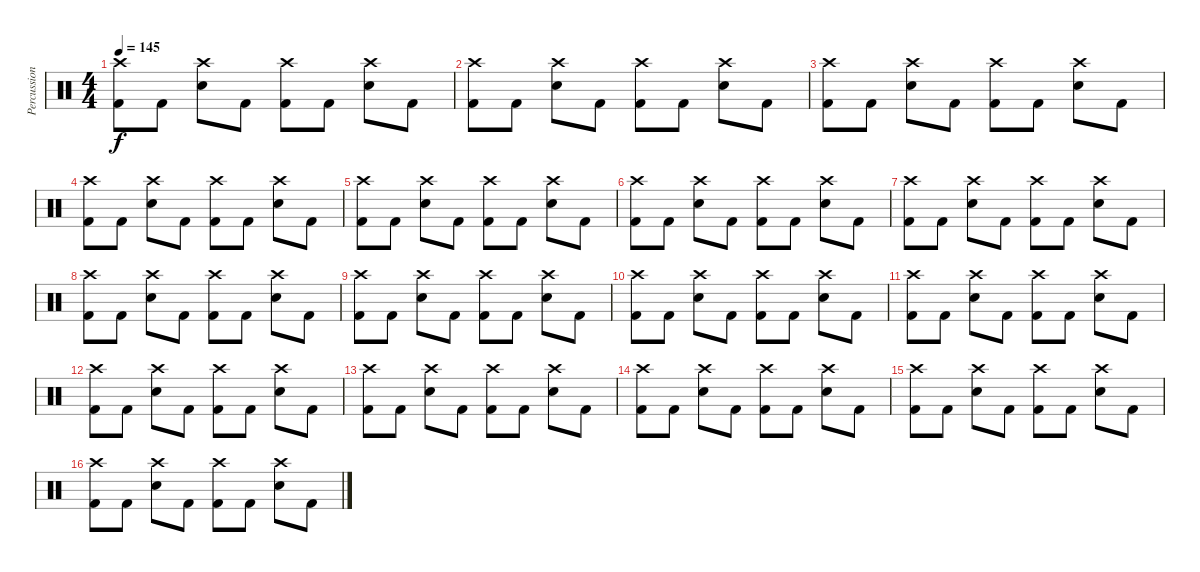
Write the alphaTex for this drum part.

\track ("Percussion" "Percussion") {instrument percussion}
\staff {score}
\articulation defaults
\ts (4 4)
\tempo 145
\clef neutral
\ks c
("Crash high (hit)" "Kick (hit) 2").8{dy f} "Kick (hit) 2".8 ("Crash high (hit)" "Electric Snare (hit)").8 "Kick (hit) 2".8 ("Crash high (hit)" "Kick (hit) 2").8 "Kick (hit) 2".8 ("Crash high (hit)" "Electric Snare (hit)").8 "Kick (hit) 2".8 |
("Crash high (hit)" "Kick (hit) 2").8 "Kick (hit) 2".8 ("Crash high (hit)" "Electric Snare (hit)").8 "Kick (hit) 2".8 ("Crash high (hit)" "Kick (hit) 2").8 "Kick (hit) 2".8 ("Crash high (hit)" "Electric Snare (hit)").8 "Kick (hit) 2".8 |
("Crash high (hit)" "Kick (hit) 2").8 "Kick (hit) 2".8 ("Crash high (hit)" "Electric Snare (hit)").8 "Kick (hit) 2".8 ("Crash high (hit)" "Kick (hit) 2").8 "Kick (hit) 2".8 ("Crash high (hit)" "Electric Snare (hit)").8 "Kick (hit) 2".8 |
("Crash high (hit)" "Kick (hit) 2").8 "Kick (hit) 2".8 ("Crash high (hit)" "Electric Snare (hit)").8 "Kick (hit) 2".8 ("Crash high (hit)" "Kick (hit) 2").8 "Kick (hit) 2".8 ("Crash high (hit)" "Electric Snare (hit)").8 "Kick (hit) 2".8 |
("Crash high (hit)" "Kick (hit) 2").8 "Kick (hit) 2".8 ("Crash high (hit)" "Electric Snare (hit)").8 "Kick (hit) 2".8 ("Crash high (hit)" "Kick (hit) 2").8 "Kick (hit) 2".8 ("Crash high (hit)" "Electric Snare (hit)").8 "Kick (hit) 2".8 |
("Crash high (hit)" "Kick (hit) 2").8 "Kick (hit) 2".8 ("Crash high (hit)" "Electric Snare (hit)").8 "Kick (hit) 2".8 ("Crash high (hit)" "Kick (hit) 2").8 "Kick (hit) 2".8 ("Crash high (hit)" "Electric Snare (hit)").8 "Kick (hit) 2".8 |
("Crash high (hit)" "Kick (hit) 2").8 "Kick (hit) 2".8 ("Crash high (hit)" "Electric Snare (hit)").8 "Kick (hit) 2".8 ("Crash high (hit)" "Kick (hit) 2").8 "Kick (hit) 2".8 ("Crash high (hit)" "Electric Snare (hit)").8 "Kick (hit) 2".8 |
("Crash high (hit)" "Kick (hit) 2").8 "Kick (hit) 2".8 ("Crash high (hit)" "Electric Snare (hit)").8 "Kick (hit) 2".8 ("Crash high (hit)" "Kick (hit) 2").8 "Kick (hit) 2".8 ("Crash high (hit)" "Electric Snare (hit)").8 "Kick (hit) 2".8 |
("Crash high (hit)" "Kick (hit) 2").8 "Kick (hit) 2".8 ("Crash high (hit)" "Electric Snare (hit)").8 "Kick (hit) 2".8 ("Crash high (hit)" "Kick (hit) 2").8 "Kick (hit) 2".8 ("Crash high (hit)" "Electric Snare (hit)").8 "Kick (hit) 2".8 |
("Crash high (hit)" "Kick (hit) 2").8 "Kick (hit) 2".8 ("Crash high (hit)" "Electric Snare (hit)").8 "Kick (hit) 2".8 ("Crash high (hit)" "Kick (hit) 2").8 "Kick (hit) 2".8 ("Crash high (hit)" "Electric Snare (hit)").8 "Kick (hit) 2".8 |
("Crash high (hit)" "Kick (hit) 2").8 "Kick (hit) 2".8 ("Crash high (hit)" "Electric Snare (hit)").8 "Kick (hit) 2".8 ("Crash high (hit)" "Kick (hit) 2").8 "Kick (hit) 2".8 ("Crash high (hit)" "Electric Snare (hit)").8 "Kick (hit) 2".8 |
("Crash high (hit)" "Kick (hit) 2").8 "Kick (hit) 2".8 ("Crash high (hit)" "Electric Snare (hit)").8 "Kick (hit) 2".8 ("Crash high (hit)" "Kick (hit) 2").8 "Kick (hit) 2".8 ("Crash high (hit)" "Electric Snare (hit)").8 "Kick (hit) 2".8 |
("Crash high (hit)" "Kick (hit) 2").8 "Kick (hit) 2".8 ("Crash high (hit)" "Electric Snare (hit)").8 "Kick (hit) 2".8 ("Crash high (hit)" "Kick (hit) 2").8 "Kick (hit) 2".8 ("Crash high (hit)" "Electric Snare (hit)").8 "Kick (hit) 2".8 |
("Crash high (hit)" "Kick (hit) 2").8 "Kick (hit) 2".8 ("Crash high (hit)" "Electric Snare (hit)").8 "Kick (hit) 2".8 ("Crash high (hit)" "Kick (hit) 2").8 "Kick (hit) 2".8 ("Crash high (hit)" "Electric Snare (hit)").8 "Kick (hit) 2".8 |
("Crash high (hit)" "Kick (hit) 2").8 "Kick (hit) 2".8 ("Crash high (hit)" "Electric Snare (hit)").8 "Kick (hit) 2".8 ("Crash high (hit)" "Kick (hit) 2").8 "Kick (hit) 2".8 ("Crash high (hit)" "Electric Snare (hit)").8 "Kick (hit) 2".8 |
("Crash high (hit)" "Kick (hit) 2").8 "Kick (hit) 2".8 ("Crash high (hit)" "Electric Snare (hit)").8 "Kick (hit) 2".8 ("Crash high (hit)" "Kick (hit) 2").8 "Kick (hit) 2".8 ("Crash high (hit)" "Electric Snare (hit)").8 "Kick (hit) 2".8
